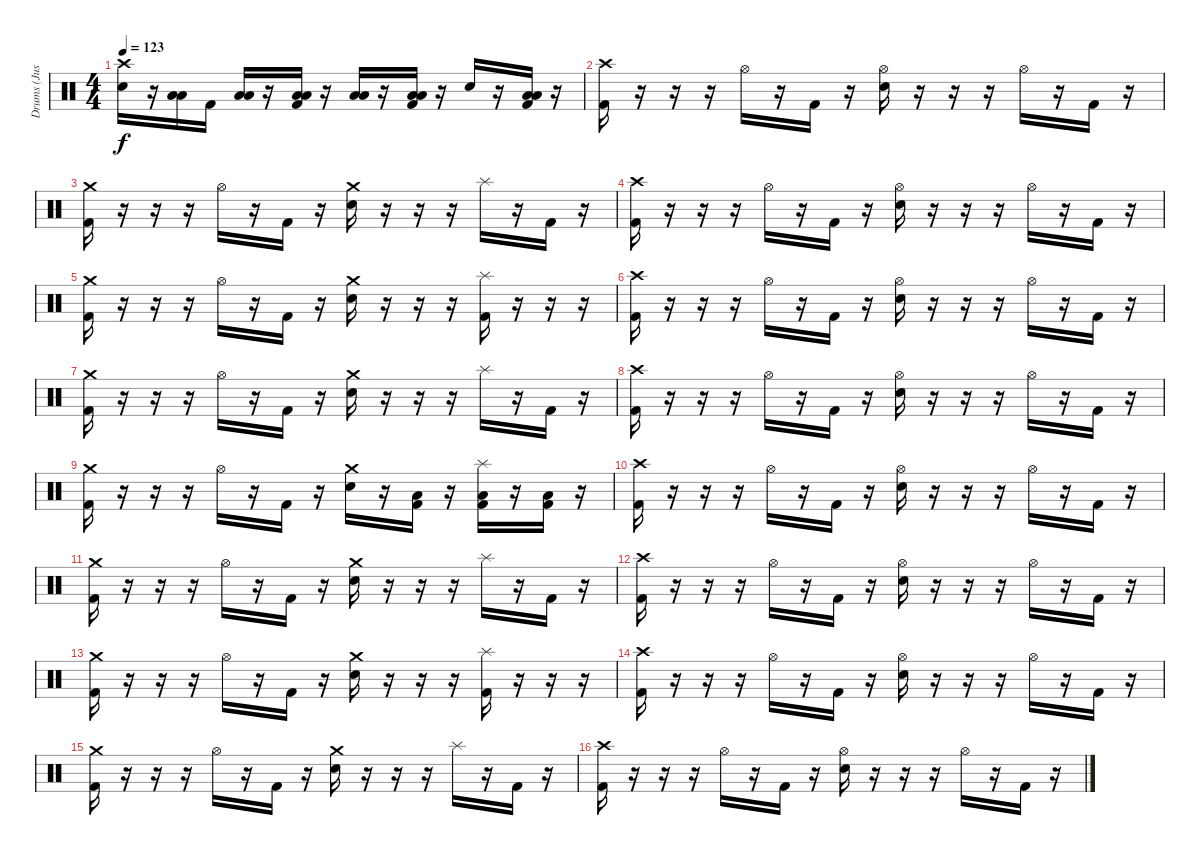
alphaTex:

\track ("Drums (Justin)" "Drums (Jus") {instrument percussion}
\staff {score}
\articulation defaults
\ts (4 4)
\tempo 123
\clef neutral
\ks c
("Electric Snare (hit)" "Crash high (hit)").16{dy f} r.16 ("Low Tom (hit)" "Low Floor Tom (hit)").16 "Kick (hit) 2".16 ("Low Tom (hit)" "Low Floor Tom (hit)").16 r.16 ("Low Tom (hit)" "Low Floor Tom (hit)" "Kick (hit) 2").16 r.16 ("Low Tom (hit)" "Low Floor Tom (hit)").16 r.16 ("Low Tom (hit)" "Low Floor Tom (hit)" "Kick (hit) 2").16 r.16 "Electric Snare (hit)".16 r.16 ("Low Tom (hit)" "Low Floor Tom (hit)" "Kick (hit) 2").16 r.16 |
("Crash high (hit)" "Kick (hit) 2").16 r.16 r.16 r.16 "Hi-Hat (open)".16 r.16 "Kick (hit) 2".16 r.16 ("Electric Snare (hit)" "Hi-Hat (open)").16 r.16 r.16 r.16 "Hi-Hat (open)".16 r.16 "Kick (hit) 2".16 r.16 |
("Crash medium (hit)" "Kick (hit) 2").16 r.16 r.16 r.16 "Hi-Hat (open)".16 r.16 "Kick (hit) 2".16 r.16 ("Electric Snare (hit)" "Crash medium (hit)").16 r.16 r.16 r.16 "Splash (hit)".16 r.16 "Kick (hit) 2".16 r.16 |
("Crash high (hit)" "Kick (hit) 2").16 r.16 r.16 r.16 "Hi-Hat (open)".16 r.16 "Kick (hit) 2".16 r.16 ("Electric Snare (hit)" "Hi-Hat (open)").16 r.16 r.16 r.16 "Hi-Hat (open)".16 r.16 "Kick (hit) 2".16 r.16 |
("Crash medium (hit)" "Kick (hit) 2").16 r.16 r.16 r.16 "Hi-Hat (open)".16 r.16 "Kick (hit) 2".16 r.16 ("Electric Snare (hit)" "Crash medium (hit)").16 r.16 r.16 r.16 ("Splash (hit)" "Kick (hit) 2").16 r.16 r.16 r.16 |
("Crash high (hit)" "Kick (hit) 2").16 r.16 r.16 r.16 "Hi-Hat (open)".16 r.16 "Kick (hit) 2".16 r.16 ("Electric Snare (hit)" "Hi-Hat (open)").16 r.16 r.16 r.16 "Hi-Hat (open)".16 r.16 "Kick (hit) 2".16 r.16 |
("Crash medium (hit)" "Kick (hit) 2").16 r.16 r.16 r.16 "Hi-Hat (open)".16 r.16 "Kick (hit) 2".16 r.16 ("Electric Snare (hit)" "Crash medium (hit)").16 r.16 r.16 r.16 "Splash (hit)".16 r.16 "Kick (hit) 2".16 r.16 |
("Crash high (hit)" "Kick (hit) 2").16 r.16 r.16 r.16 "Hi-Hat (open)".16 r.16 "Kick (hit) 2".16 r.16 ("Electric Snare (hit)" "Hi-Hat (open)").16 r.16 r.16 r.16 "Hi-Hat (open)".16 r.16 "Kick (hit) 2".16 r.16 |
("Crash medium (hit)" "Kick (hit) 2").16 r.16 r.16 r.16 "Hi-Hat (open)".16 r.16 "Kick (hit) 2".16 r.16 ("Electric Snare (hit)" "Crash medium (hit)").16 r.16 ("Low Floor Tom (hit)" "Kick (hit) 2").16 r.16 ("Splash (hit)" "Low Floor Tom (hit)" "Kick (hit) 2").16 r.16 ("Low Floor Tom (hit)" "Kick (hit) 2").16 r.16 |
("Crash high (hit)" "Kick (hit) 2").16 r.16 r.16 r.16 "Hi-Hat (open)".16 r.16 "Kick (hit) 2".16 r.16 ("Electric Snare (hit)" "Hi-Hat (open)").16 r.16 r.16 r.16 "Hi-Hat (open)".16 r.16 "Kick (hit) 2".16 r.16 |
("Crash medium (hit)" "Kick (hit) 2").16 r.16 r.16 r.16 "Hi-Hat (open)".16 r.16 "Kick (hit) 2".16 r.16 ("Electric Snare (hit)" "Crash medium (hit)").16 r.16 r.16 r.16 "Splash (hit)".16 r.16 "Kick (hit) 2".16 r.16 |
("Crash high (hit)" "Kick (hit) 2").16 r.16 r.16 r.16 "Hi-Hat (open)".16 r.16 "Kick (hit) 2".16 r.16 ("Electric Snare (hit)" "Hi-Hat (open)").16 r.16 r.16 r.16 "Hi-Hat (open)".16 r.16 "Kick (hit) 2".16 r.16 |
("Crash medium (hit)" "Kick (hit) 2").16 r.16 r.16 r.16 "Hi-Hat (open)".16 r.16 "Kick (hit) 2".16 r.16 ("Electric Snare (hit)" "Crash medium (hit)").16 r.16 r.16 r.16 ("Splash (hit)" "Kick (hit) 2").16 r.16 r.16 r.16 |
("Crash high (hit)" "Kick (hit) 2").16 r.16 r.16 r.16 "Hi-Hat (open)".16 r.16 "Kick (hit) 2".16 r.16 ("Electric Snare (hit)" "Hi-Hat (open)").16 r.16 r.16 r.16 "Hi-Hat (open)".16 r.16 "Kick (hit) 2".16 r.16 |
("Crash medium (hit)" "Kick (hit) 2").16 r.16 r.16 r.16 "Hi-Hat (open)".16 r.16 "Kick (hit) 2".16 r.16 ("Electric Snare (hit)" "Crash medium (hit)").16 r.16 r.16 r.16 "Splash (hit)".16 r.16 "Kick (hit) 2".16 r.16 |
("Crash high (hit)" "Kick (hit) 2").16 r.16 r.16 r.16 "Hi-Hat (open)".16 r.16 "Kick (hit) 2".16 r.16 ("Electric Snare (hit)" "Hi-Hat (open)").16 r.16 r.16 r.16 "Hi-Hat (open)".16 r.16 "Kick (hit) 2".16 r.16
